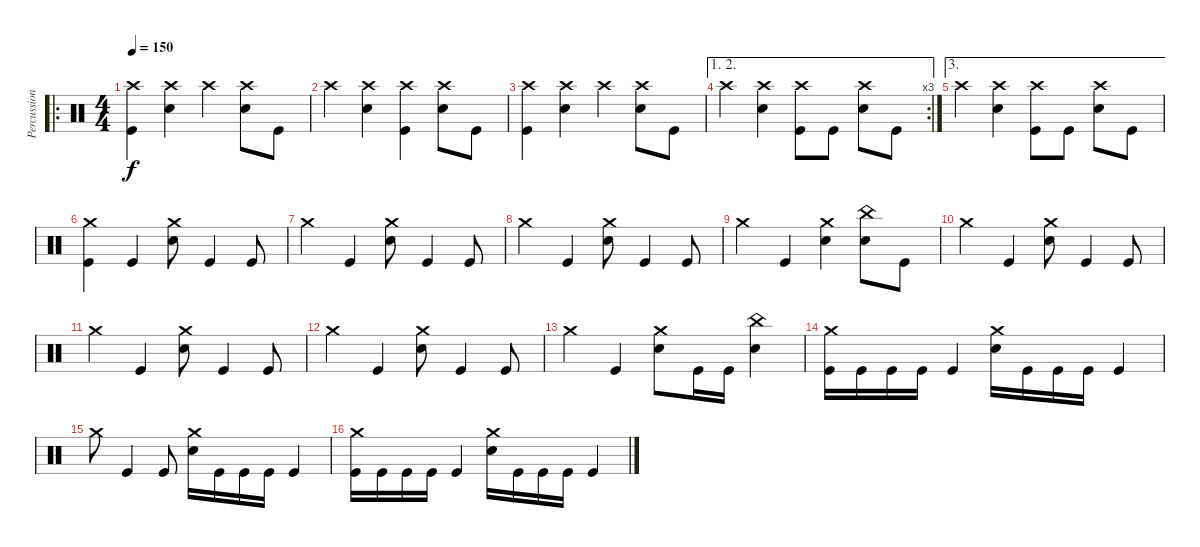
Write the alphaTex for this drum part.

\track ("Percussion" "Percussion") {instrument percussion}
\staff {score}
\articulation defaults
\ro
\ts (4 4)
\tempo 150
\clef neutral
\ks c
("Crash high (hit)" "Kick (hit)").4{dy f} ("Crash high (hit)" "Electric Snare (hit)").4 "Crash high (hit)".4 ("Crash high (hit)" "Electric Snare (hit)").8 "Kick (hit)".8 |
"Crash high (hit)".4 ("Crash high (hit)" "Electric Snare (hit)").4 ("Crash high (hit)" "Kick (hit)").4 ("Crash high (hit)" "Electric Snare (hit)").8 "Kick (hit)".8 |
("Crash high (hit)" "Kick (hit)").4 ("Crash high (hit)" "Electric Snare (hit)").4 "Crash high (hit)".4 ("Crash high (hit)" "Electric Snare (hit)").8 "Kick (hit)".8 |
\ae (1 2)
\rc 3 "Crash high (hit)".4
("Crash high (hit)" "Electric Snare (hit)").4 ("Crash high (hit)" "Kick (hit)").8 "Kick (hit)".8 ("Crash high (hit)" "Electric Snare (hit)").8 "Kick (hit)".8 |
\ae 3 "Crash high (hit)".4
("Crash high (hit)" "Electric Snare (hit)").4 ("Crash high (hit)" "Kick (hit)").8 "Kick (hit)".8 ("Crash high (hit)" "Electric Snare (hit)").8 "Kick (hit)".8 |
("Crash medium (hit)" "Kick (hit)").4 "Kick (hit)".4 ("Crash medium (hit)" "Electric Snare (hit)").8 "Kick (hit)".4 "Kick (hit)".8 |
"Crash medium (hit)".4 "Kick (hit)".4 ("Crash medium (hit)" "Electric Snare (hit)").8 "Kick (hit)".4 "Kick (hit)".8 |
"Crash medium (hit)".4 "Kick (hit)".4 ("Crash medium (hit)" "Electric Snare (hit)").8 "Kick (hit)".4 "Kick (hit)".8 |
"Crash medium (hit)".4 "Kick (hit)".4 ("Crash medium (hit)" "Electric Snare (hit)").4 ("China (hit)" "Electric Snare (hit)").8 "Kick (hit)".8 |
"Crash medium (hit)".4 "Kick (hit)".4 ("Crash medium (hit)" "Electric Snare (hit)").8 "Kick (hit)".4 "Kick (hit)".8 |
"Crash medium (hit)".4 "Kick (hit)".4 ("Crash medium (hit)" "Electric Snare (hit)").8 "Kick (hit)".4 "Kick (hit)".8 |
"Crash medium (hit)".4 "Kick (hit)".4 ("Crash medium (hit)" "Electric Snare (hit)").8 "Kick (hit)".4 "Kick (hit)".8 |
"Crash medium (hit)".4 "Kick (hit)".4 ("Crash medium (hit)" "Electric Snare (hit)").8 "Kick (hit)".16 "Kick (hit)".16 ("China (hit)" "Electric Snare (hit)").4 |
("Crash medium (hit)" "Kick (hit)").16 "Kick (hit)".16 "Kick (hit)".16 "Kick (hit)".16 "Kick (hit)".4 ("Crash medium (hit)" "Electric Snare (hit)").16 "Kick (hit)".16 "Kick (hit)".16 "Kick (hit)".16 "Kick (hit)".4 |
"Crash medium (hit)".8 "Kick (hit)".4 "Kick (hit)".8 ("Crash medium (hit)" "Electric Snare (hit)").16 "Kick (hit)".16 "Kick (hit)".16 "Kick (hit)".16 "Kick (hit)".4 |
("Crash medium (hit)" "Kick (hit)").16 "Kick (hit)".16 "Kick (hit)".16 "Kick (hit)".16 "Kick (hit)".4 ("Crash medium (hit)" "Electric Snare (hit)").16 "Kick (hit)".16 "Kick (hit)".16 "Kick (hit)".16 "Kick (hit)".4
